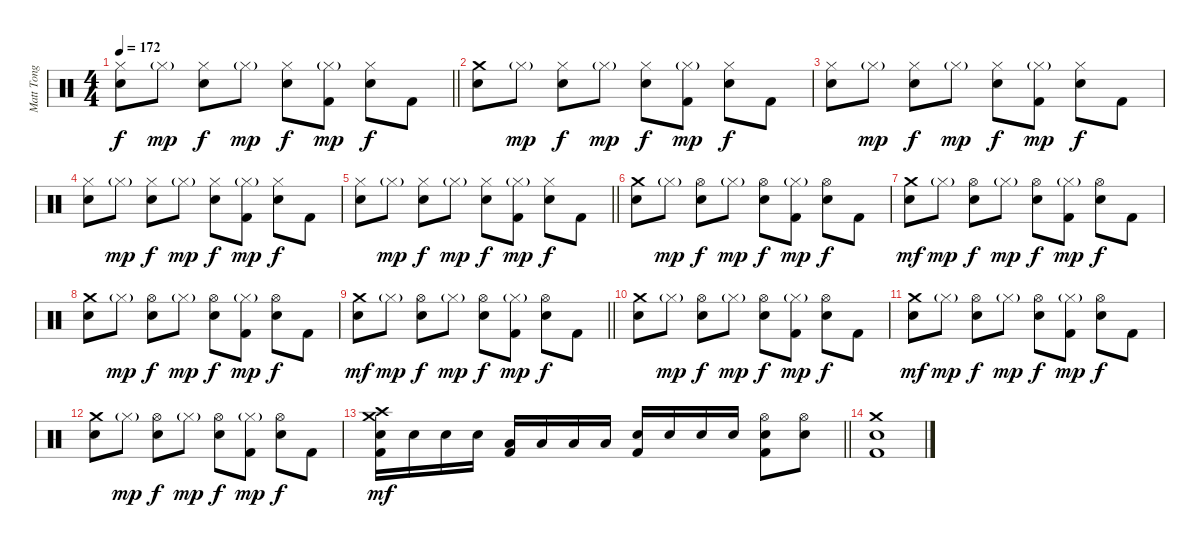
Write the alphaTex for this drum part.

\track ("Matt Tong" "Matt Tong") {instrument percussion}
\staff {score}
\articulation defaults
\ts (4 4)
\tempo 172
\clef neutral
\barLineRight lightlight
\ks c
("Hi-Hat (closed)" "Snare (hit) 2").8{dy f} "Hi-Hat (closed)"{g}.8{dy mp} ("Hi-Hat (closed)" "Snare (hit) 2").8{dy f} "Hi-Hat (closed)"{g}.8{dy mp} ("Hi-Hat (closed)" "Snare (hit) 2").8{dy f} ("Hi-Hat (closed)"{g} "Kick (hit) 2").8{dy mp} ("Hi-Hat (closed)" "Snare (hit) 2").8{dy f} "Kick (hit) 2".8 |
("Crash medium (hit)" "Snare (hit) 2").8 "Hi-Hat (closed)"{g}.8{dy mp} ("Hi-Hat (closed)" "Snare (hit) 2").8{dy f} "Hi-Hat (closed)"{g}.8{dy mp} ("Hi-Hat (closed)" "Snare (hit) 2").8{dy f} ("Hi-Hat (closed)"{g} "Kick (hit) 2").8{dy mp} ("Hi-Hat (closed)" "Snare (hit) 2").8{dy f} "Kick (hit) 2".8 |
("Hi-Hat (closed)" "Snare (hit) 2").8 "Hi-Hat (closed)"{g}.8{dy mp} ("Hi-Hat (closed)" "Snare (hit) 2").8{dy f} "Hi-Hat (closed)"{g}.8{dy mp} ("Hi-Hat (closed)" "Snare (hit) 2").8{dy f} ("Hi-Hat (closed)"{g} "Kick (hit) 2").8{dy mp} ("Hi-Hat (closed)" "Snare (hit) 2").8{dy f} "Kick (hit) 2".8 |
("Hi-Hat (closed)" "Snare (hit) 2").8 "Hi-Hat (closed)"{g}.8{dy mp} ("Hi-Hat (closed)" "Snare (hit) 2").8{dy f} "Hi-Hat (closed)"{g}.8{dy mp} ("Hi-Hat (closed)" "Snare (hit) 2").8{dy f} ("Hi-Hat (closed)"{g} "Kick (hit) 2").8{dy mp} ("Hi-Hat (closed)" "Snare (hit) 2").8{dy f} "Kick (hit) 2".8 |
\barLineRight lightlight
("Hi-Hat (closed)" "Snare (hit) 2").8 "Hi-Hat (closed)"{g}.8{dy mp} ("Hi-Hat (closed)" "Snare (hit) 2").8{dy f} "Hi-Hat (closed)"{g}.8{dy mp} ("Hi-Hat (closed)" "Snare (hit) 2").8{dy f} ("Hi-Hat (closed)"{g} "Kick (hit) 2").8{dy mp} ("Hi-Hat (closed)" "Snare (hit) 2").8{dy f} "Kick (hit) 2".8 |
("Crash medium (hit)" "Snare (hit) 2").8 "Hi-Hat (closed)"{g}.8{dy mp} ("Hi-Hat (open)" "Snare (hit) 2").8{dy f} "Hi-Hat (closed)"{g}.8{dy mp} ("Hi-Hat (open)" "Snare (hit) 2").8{dy f} ("Hi-Hat (closed)"{g} "Kick (hit) 2").8{dy mp} ("Hi-Hat (open)" "Snare (hit) 2").8{dy f} "Kick (hit) 2".8 |
("Crash medium (hit)" "Snare (hit) 2").8{dy mf} "Hi-Hat (closed)"{g}.8{dy mp} ("Hi-Hat (open)" "Snare (hit) 2").8{dy f} "Hi-Hat (closed)"{g}.8{dy mp} ("Hi-Hat (open)" "Snare (hit) 2").8{dy f} ("Hi-Hat (closed)"{g} "Kick (hit) 2").8{dy mp} ("Hi-Hat (open)" "Snare (hit) 2").8{dy f} "Kick (hit) 2".8 |
("Crash medium (hit)" "Snare (hit) 2").8 "Hi-Hat (closed)"{g}.8{dy mp} ("Hi-Hat (open)" "Snare (hit) 2").8{dy f} "Hi-Hat (closed)"{g}.8{dy mp} ("Hi-Hat (open)" "Snare (hit) 2").8{dy f} ("Hi-Hat (closed)"{g} "Kick (hit) 2").8{dy mp} ("Hi-Hat (open)" "Snare (hit) 2").8{dy f} "Kick (hit) 2".8 |
\barLineRight lightlight
("Crash medium (hit)" "Snare (hit) 2").8{dy mf} "Hi-Hat (closed)"{g}.8{dy mp} ("Hi-Hat (open)" "Snare (hit) 2").8{dy f} "Hi-Hat (closed)"{g}.8{dy mp} ("Hi-Hat (open)" "Snare (hit) 2").8{dy f} ("Hi-Hat (closed)"{g} "Kick (hit) 2").8{dy mp} ("Hi-Hat (open)" "Snare (hit) 2").8{dy f} "Kick (hit) 2".8 |
("Crash medium (hit)" "Snare (hit) 2").8 "Hi-Hat (closed)"{g}.8{dy mp} ("Hi-Hat (open)" "Snare (hit) 2").8{dy f} "Hi-Hat (closed)"{g}.8{dy mp} ("Hi-Hat (open)" "Snare (hit) 2").8{dy f} ("Hi-Hat (closed)"{g} "Kick (hit) 2").8{dy mp} ("Hi-Hat (open)" "Snare (hit) 2").8{dy f} "Kick (hit) 2".8 |
("Crash medium (hit)" "Snare (hit) 2").8{dy mf} "Hi-Hat (closed)"{g}.8{dy mp} ("Hi-Hat (open)" "Snare (hit) 2").8{dy f} "Hi-Hat (closed)"{g}.8{dy mp} ("Hi-Hat (open)" "Snare (hit) 2").8{dy f} ("Hi-Hat (closed)"{g} "Kick (hit) 2").8{dy mp} ("Hi-Hat (open)" "Snare (hit) 2").8{dy f} "Kick (hit) 2".8 |
("Crash medium (hit)" "Snare (hit) 2").8 "Hi-Hat (closed)"{g}.8{dy mp} ("Hi-Hat (open)" "Snare (hit) 2").8{dy f} "Hi-Hat (closed)"{g}.8{dy mp} ("Hi-Hat (open)" "Snare (hit) 2").8{dy f} ("Hi-Hat (closed)"{g} "Kick (hit) 2").8{dy mp} ("Hi-Hat (open)" "Snare (hit) 2").8{dy f} "Kick (hit) 2".8 |
\barLineRight lightlight
("Crash high (hit)" "Crash medium (hit)" "Snare (hit) 2" "Kick (hit) 2").16{dy mf} "Snare (hit) 2".16 "Snare (hit) 2".16 "Snare (hit) 2".16 ("Low Tom (hit)" "Kick (hit) 2").16 "Low Tom (hit)".16 "Low Tom (hit)".16 "Low Tom (hit)".16 ("Snare (hit) 2" "Kick (hit) 2").16 "Snare (hit) 2".16 "Snare (hit) 2".16 "Snare (hit) 2".16 ("Hi-Hat (open)" "Snare (hit) 2" "Kick (hit) 2").8 ("Hi-Hat (open)" "Snare (hit) 2").8 |
("Crash medium (hit)" "Snare (hit) 2" "Kick (hit) 2").1
